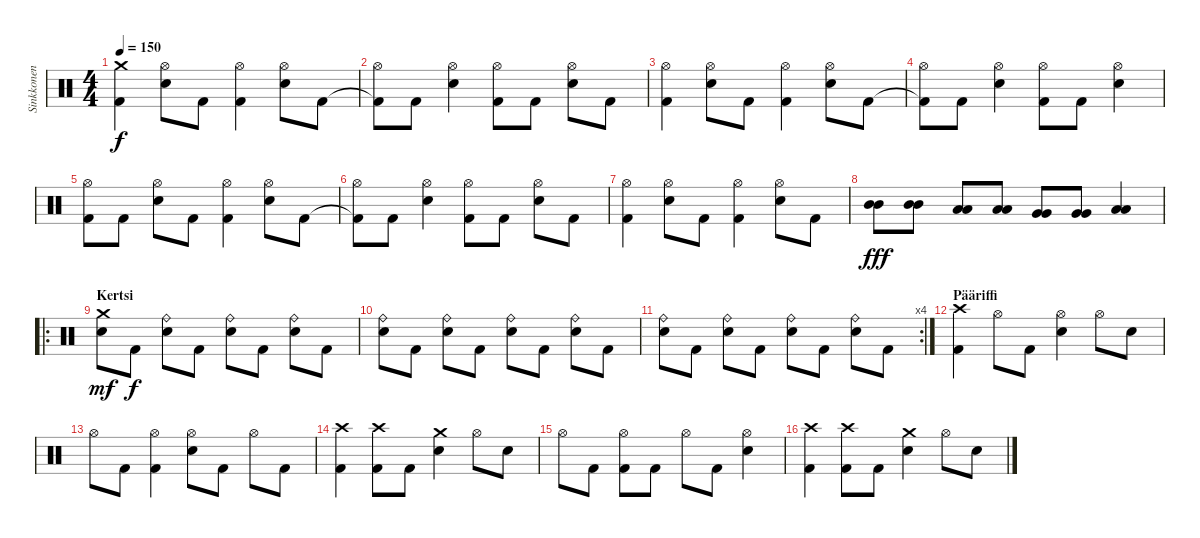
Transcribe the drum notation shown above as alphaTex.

\track ("Sinkkonen" "Sinkkonen") {instrument percussion}
\staff {score}
\articulation defaults
\ts (4 4)
\tempo 150
\clef neutral
\ks c
("Kick (hit) 2" "Crash medium (hit)").4{dy f} ("Hi-Hat (open)" "Snare (hit) 2").8 "Kick (hit) 2".8 ("Kick (hit) 2" "Hi-Hat (open)").4 ("Hi-Hat (open)" "Snare (hit) 2").8 "Kick (hit) 2".8 |
("Kick (hit) 2"{t} "Hi-Hat (open)").8 "Kick (hit) 2".8 ("Hi-Hat (open)" "Snare (hit) 2").4 ("Kick (hit) 2" "Hi-Hat (open)").8 "Kick (hit) 2".8 ("Hi-Hat (open)" "Snare (hit) 2").8 "Kick (hit) 2".8 |
("Kick (hit) 2" "Hi-Hat (open)").4 ("Hi-Hat (open)" "Snare (hit) 2").8 "Kick (hit) 2".8 ("Kick (hit) 2" "Hi-Hat (open)").4 ("Hi-Hat (open)" "Snare (hit) 2").8 "Kick (hit) 2".8 |
("Kick (hit) 2"{t} "Hi-Hat (open)").8 "Kick (hit) 2".8 ("Hi-Hat (open)" "Snare (hit) 2").4 ("Kick (hit) 2" "Hi-Hat (open)").8 "Kick (hit) 2".8 ("Hi-Hat (open)" "Snare (hit) 2").4 |
("Kick (hit) 2" "Hi-Hat (open)").8 "Kick (hit) 2".8 ("Hi-Hat (open)" "Snare (hit) 2").8 "Kick (hit) 2".8 ("Kick (hit) 2" "Hi-Hat (open)").4 ("Hi-Hat (open)" "Snare (hit) 2").8 "Kick (hit) 2".8 |
("Kick (hit) 2"{t} "Hi-Hat (open)").8 "Kick (hit) 2".8 ("Hi-Hat (open)" "Snare (hit) 2").4 ("Kick (hit) 2" "Hi-Hat (open)").8 "Kick (hit) 2".8 ("Hi-Hat (open)" "Snare (hit) 2").8 "Kick (hit) 2".8 |
("Kick (hit) 2" "Hi-Hat (open)").4 ("Hi-Hat (open)" "Snare (hit) 2").8 "Kick (hit) 2".8 ("Kick (hit) 2" "Hi-Hat (open)").4 ("Hi-Hat (open)" "Snare (hit) 2").8 "Kick (hit) 2".8 |
("Mid Tom (hit)" "Mid Tom (hit)").8{dy fff} ("Mid Tom (hit)" "Mid Tom (hit)").8 ("Low Tom (hit)" "Low Tom (hit)").8 ("Low Tom (hit)" "Low Tom (hit)").8 ("Very Low Tom (hit)" "Very Low Tom (hit)").8 ("Very Low Tom (hit)" "Very Low Tom (hit)").8 ("Low Floor Tom (hit)" "Low Floor Tom (hit)").4 |
\ro
\section ("" "Kertsi")
("Crash medium (hit)" "Snare (hit) 2").8{dy mf} "Kick (hit) 2".8{dy f} ("Ride (bell)" "Snare (hit) 2").8 "Kick (hit) 2".8 ("Ride (bell)" "Snare (hit) 2").8 "Kick (hit) 2".8 ("Ride (bell)" "Snare (hit) 2").8 "Kick (hit) 2".8 |
("Ride (bell)" "Snare (hit) 2").8 "Kick (hit) 2".8 ("Ride (bell)" "Snare (hit) 2").8 "Kick (hit) 2".8 ("Ride (bell)" "Snare (hit) 2").8 "Kick (hit) 2".8 ("Ride (bell)" "Snare (hit) 2").8 "Kick (hit) 2".8 |
\rc 4
("Ride (bell)" "Snare (hit) 2").8 "Kick (hit) 2".8 ("Ride (bell)" "Snare (hit) 2").8 "Kick (hit) 2".8 ("Ride (bell)" "Snare (hit) 2").8 "Kick (hit) 2".8 ("Ride (bell)" "Snare (hit) 2").8 "Kick (hit) 2".8 |
\section ("" "Pääriffi")
("Kick (hit) 2" "Crash high (hit)").4 "Hi-Hat (open)".8 "Kick (hit) 2".8 ("Hi-Hat (open)" "Snare (hit) 2").4 "Hi-Hat (open)".8 "Snare (hit) 2".8 |
"Hi-Hat (open)".8 "Kick (hit) 2".8 ("Kick (hit) 2" "Hi-Hat (open)").4 ("Hi-Hat (open)" "Snare (hit) 2").8 "Kick (hit) 2".8 "Hi-Hat (open)".8 "Kick (hit) 2".8 |
("Kick (hit) 2" "Crash high (hit)").4 ("Kick (hit) 2" "Crash high (hit)").8 "Kick (hit) 2".8 ("Crash medium (hit)" "Snare (hit) 2").4 "Hi-Hat (open)".8 "Snare (hit) 2".8 |
"Hi-Hat (open)".8 "Kick (hit) 2".8 ("Kick (hit) 2" "Hi-Hat (open)").8 "Kick (hit) 2".8 "Hi-Hat (open)".8 "Kick (hit) 2".8 ("Hi-Hat (open)" "Snare (hit) 2").4 |
("Kick (hit) 2" "Crash high (hit)").4 ("Kick (hit) 2" "Crash high (hit)").8 "Kick (hit) 2".8 ("Crash medium (hit)" "Snare (hit) 2").4 "Hi-Hat (open)".8 "Snare (hit) 2".8
